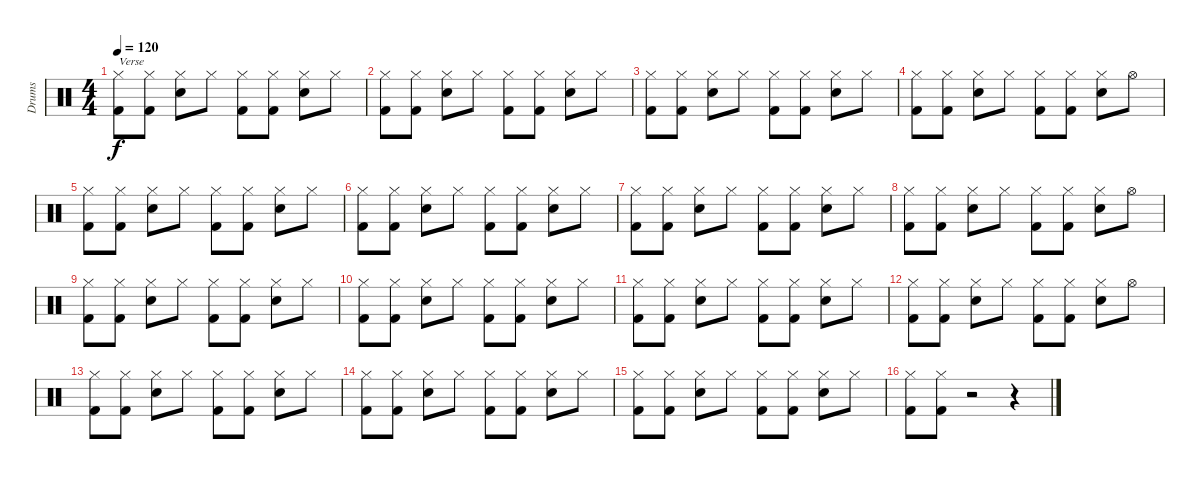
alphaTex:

\track ("Drums" "Drums") {instrument percussion}
\staff {score}
\articulation defaults
\ts (4 4)
\tempo 120
\clef neutral
\ks c
("Hi-Hat (closed)" "Kick (hit) 2").8{txt "Verse" dy f} ("Hi-Hat (closed)" "Kick (hit) 2").8 ("Hi-Hat (closed)" "Electric Snare (hit)").8 "Hi-Hat (closed)".8 ("Hi-Hat (closed)" "Kick (hit) 2").8 ("Hi-Hat (closed)" "Kick (hit) 2").8 ("Hi-Hat (closed)" "Electric Snare (hit)").8 "Hi-Hat (closed)".8 |
("Hi-Hat (closed)" "Kick (hit) 2").8 ("Hi-Hat (closed)" "Kick (hit) 2").8 ("Hi-Hat (closed)" "Electric Snare (hit)").8 "Hi-Hat (closed)".8 ("Hi-Hat (closed)" "Kick (hit) 2").8 ("Hi-Hat (closed)" "Kick (hit) 2").8 ("Hi-Hat (closed)" "Electric Snare (hit)").8 "Hi-Hat (closed)".8 |
("Hi-Hat (closed)" "Kick (hit) 2").8 ("Hi-Hat (closed)" "Kick (hit) 2").8 ("Hi-Hat (closed)" "Electric Snare (hit)").8 "Hi-Hat (closed)".8 ("Hi-Hat (closed)" "Kick (hit) 2").8 ("Hi-Hat (closed)" "Kick (hit) 2").8 ("Hi-Hat (closed)" "Electric Snare (hit)").8 "Hi-Hat (closed)".8 |
("Hi-Hat (closed)" "Kick (hit) 2").8 ("Hi-Hat (closed)" "Kick (hit) 2").8 ("Hi-Hat (closed)" "Electric Snare (hit)").8 "Hi-Hat (closed)".8 ("Hi-Hat (closed)" "Kick (hit) 2").8 ("Hi-Hat (closed)" "Kick (hit) 2").8 ("Hi-Hat (closed)" "Electric Snare (hit)").8 "Hi-Hat (open)".8 |
("Hi-Hat (closed)" "Kick (hit) 2").8 ("Hi-Hat (closed)" "Kick (hit) 2").8 ("Hi-Hat (closed)" "Electric Snare (hit)").8 "Hi-Hat (closed)".8 ("Hi-Hat (closed)" "Kick (hit) 2").8 ("Hi-Hat (closed)" "Kick (hit) 2").8 ("Hi-Hat (closed)" "Electric Snare (hit)").8 "Hi-Hat (closed)".8 |
("Hi-Hat (closed)" "Kick (hit) 2").8 ("Hi-Hat (closed)" "Kick (hit) 2").8 ("Hi-Hat (closed)" "Electric Snare (hit)").8 "Hi-Hat (closed)".8 ("Hi-Hat (closed)" "Kick (hit) 2").8 ("Hi-Hat (closed)" "Kick (hit) 2").8 ("Hi-Hat (closed)" "Electric Snare (hit)").8 "Hi-Hat (closed)".8 |
("Hi-Hat (closed)" "Kick (hit) 2").8 ("Hi-Hat (closed)" "Kick (hit) 2").8 ("Hi-Hat (closed)" "Electric Snare (hit)").8 "Hi-Hat (closed)".8 ("Hi-Hat (closed)" "Kick (hit) 2").8 ("Hi-Hat (closed)" "Kick (hit) 2").8 ("Hi-Hat (closed)" "Electric Snare (hit)").8 "Hi-Hat (closed)".8 |
("Hi-Hat (closed)" "Kick (hit) 2").8 ("Hi-Hat (closed)" "Kick (hit) 2").8 ("Hi-Hat (closed)" "Electric Snare (hit)").8 "Hi-Hat (closed)".8 ("Hi-Hat (closed)" "Kick (hit) 2").8 ("Hi-Hat (closed)" "Kick (hit) 2").8 ("Hi-Hat (closed)" "Electric Snare (hit)").8 "Hi-Hat (open)".8 |
("Hi-Hat (closed)" "Kick (hit) 2").8 ("Hi-Hat (closed)" "Kick (hit) 2").8 ("Hi-Hat (closed)" "Electric Snare (hit)").8 "Hi-Hat (closed)".8 ("Hi-Hat (closed)" "Kick (hit) 2").8 ("Hi-Hat (closed)" "Kick (hit) 2").8 ("Hi-Hat (closed)" "Electric Snare (hit)").8 "Hi-Hat (closed)".8 |
("Hi-Hat (closed)" "Kick (hit) 2").8 ("Hi-Hat (closed)" "Kick (hit) 2").8 ("Hi-Hat (closed)" "Electric Snare (hit)").8 "Hi-Hat (closed)".8 ("Hi-Hat (closed)" "Kick (hit) 2").8 ("Hi-Hat (closed)" "Kick (hit) 2").8 ("Hi-Hat (closed)" "Electric Snare (hit)").8 "Hi-Hat (closed)".8 |
("Hi-Hat (closed)" "Kick (hit) 2").8 ("Hi-Hat (closed)" "Kick (hit) 2").8 ("Hi-Hat (closed)" "Electric Snare (hit)").8 "Hi-Hat (closed)".8 ("Hi-Hat (closed)" "Kick (hit) 2").8 ("Hi-Hat (closed)" "Kick (hit) 2").8 ("Hi-Hat (closed)" "Electric Snare (hit)").8 "Hi-Hat (closed)".8 |
("Hi-Hat (closed)" "Kick (hit) 2").8 ("Hi-Hat (closed)" "Kick (hit) 2").8 ("Hi-Hat (closed)" "Electric Snare (hit)").8 "Hi-Hat (closed)".8 ("Hi-Hat (closed)" "Kick (hit) 2").8 ("Hi-Hat (closed)" "Kick (hit) 2").8 ("Hi-Hat (closed)" "Electric Snare (hit)").8 "Hi-Hat (open)".8 |
("Hi-Hat (closed)" "Kick (hit) 2").8 ("Hi-Hat (closed)" "Kick (hit) 2").8 ("Hi-Hat (closed)" "Electric Snare (hit)").8 "Hi-Hat (closed)".8 ("Hi-Hat (closed)" "Kick (hit) 2").8 ("Hi-Hat (closed)" "Kick (hit) 2").8 ("Hi-Hat (closed)" "Electric Snare (hit)").8 "Hi-Hat (closed)".8 |
("Hi-Hat (closed)" "Kick (hit) 2").8 ("Hi-Hat (closed)" "Kick (hit) 2").8 ("Hi-Hat (closed)" "Electric Snare (hit)").8 "Hi-Hat (closed)".8 ("Hi-Hat (closed)" "Kick (hit) 2").8 ("Hi-Hat (closed)" "Kick (hit) 2").8 ("Hi-Hat (closed)" "Electric Snare (hit)").8 "Hi-Hat (closed)".8 |
("Hi-Hat (closed)" "Kick (hit) 2").8 ("Hi-Hat (closed)" "Kick (hit) 2").8 ("Hi-Hat (closed)" "Electric Snare (hit)").8 "Hi-Hat (closed)".8 ("Hi-Hat (closed)" "Kick (hit) 2").8 ("Hi-Hat (closed)" "Kick (hit) 2").8 ("Hi-Hat (closed)" "Electric Snare (hit)").8 "Hi-Hat (closed)".8 |
("Hi-Hat (closed)" "Kick (hit) 2").8 ("Hi-Hat (closed)" "Kick (hit) 2").8 r.2 r.4
